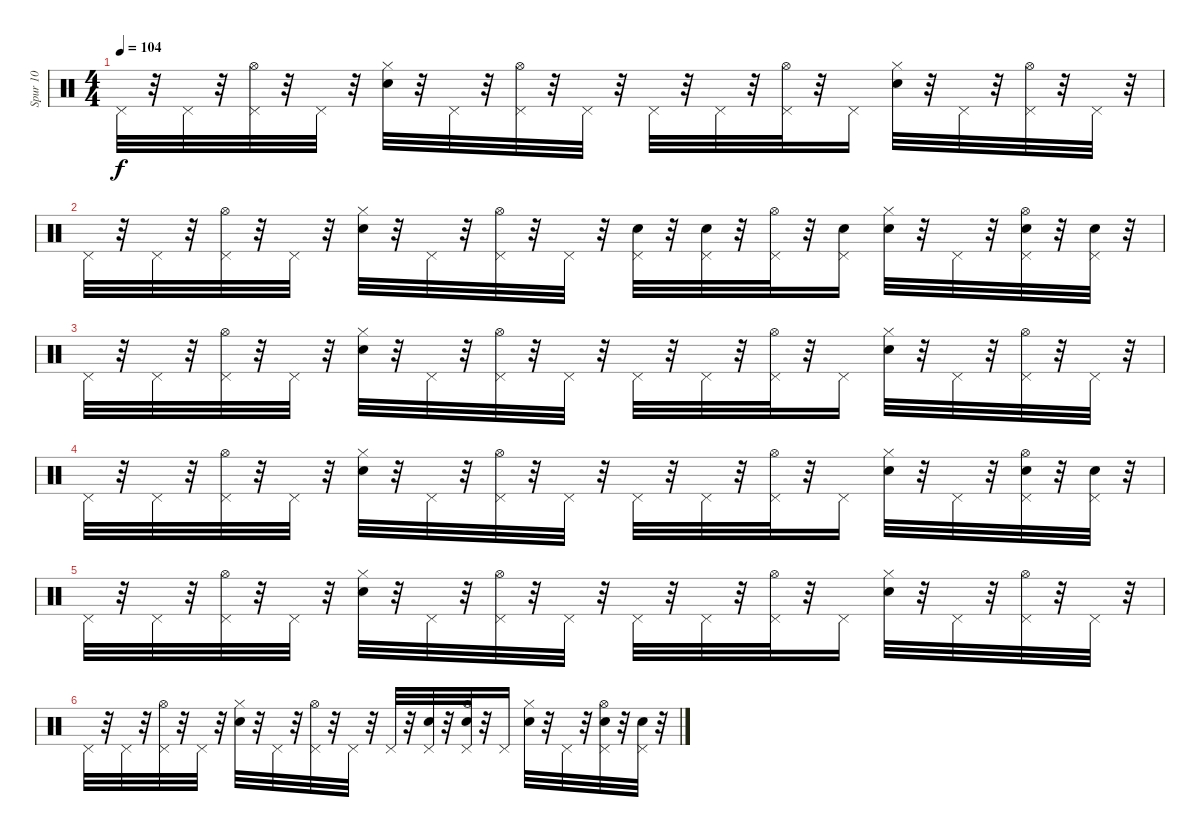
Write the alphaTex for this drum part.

\track ("Spur 10" "Spur 10") {instrument percussion}
\staff {score}
\articulation defaults
\ts (4 4)
\tempo 104
\clef neutral
\ks c "Pedal Hi-Hat (hit)".32{dy f}
r.32 "Pedal Hi-Hat (hit)".32 r.32 ("Pedal Hi-Hat (hit)" "Hi-Hat (open)").32 r.32 "Pedal Hi-Hat (hit)".32 r.32 ("Snare (hit) 2" "Hi-Hat (closed)").32 r.32 "Pedal Hi-Hat (hit)".32 r.32 ("Pedal Hi-Hat (hit)" "Hi-Hat (open)").32 r.32 "Pedal Hi-Hat (hit)".32 r.32 "Pedal Hi-Hat (hit)".32 r.32 "Pedal Hi-Hat (hit)".32 r.32 ("Pedal Hi-Hat (hit)" "Hi-Hat (open)").32 r.32 "Pedal Hi-Hat (hit)".16 ("Snare (hit) 2" "Hi-Hat (closed)").32 r.32 "Pedal Hi-Hat (hit)".32 r.32 ("Pedal Hi-Hat (hit)" "Hi-Hat (open)").32 r.32 "Pedal Hi-Hat (hit)".32 r.32 |
"Pedal Hi-Hat (hit)".32 r.32 "Pedal Hi-Hat (hit)".32 r.32 ("Pedal Hi-Hat (hit)" "Hi-Hat (open)").32 r.32 "Pedal Hi-Hat (hit)".32 r.32 ("Snare (hit) 2" "Hi-Hat (closed)").32 r.32 "Pedal Hi-Hat (hit)".32 r.32 ("Pedal Hi-Hat (hit)" "Hi-Hat (open)").32 r.32 "Pedal Hi-Hat (hit)".32 r.32 ("Snare (hit) 2" "Pedal Hi-Hat (hit)").32 r.32 ("Snare (hit) 2" "Pedal Hi-Hat (hit)").32 r.32 ("Pedal Hi-Hat (hit)" "Hi-Hat (open)").32 r.32 ("Snare (hit) 2" "Pedal Hi-Hat (hit)").16 ("Snare (hit) 2" "Hi-Hat (closed)").32 r.32 "Pedal Hi-Hat (hit)".32 r.32 ("Snare (hit) 2" "Pedal Hi-Hat (hit)" "Hi-Hat (open)").32 r.32 ("Snare (hit) 2" "Pedal Hi-Hat (hit)").32 r.32 |
"Pedal Hi-Hat (hit)".32{volume 12} r.32 "Pedal Hi-Hat (hit)".32{volume 12} r.32 ("Pedal Hi-Hat (hit)" "Hi-Hat (open)").32{volume 12} r.32 "Pedal Hi-Hat (hit)".32{volume 12} r.32 ("Snare (hit) 2" "Hi-Hat (closed)").32{volume 12} r.32 "Pedal Hi-Hat (hit)".32{volume 12} r.32 ("Pedal Hi-Hat (hit)" "Hi-Hat (open)").32{volume 11} r.32 "Pedal Hi-Hat (hit)".32{volume 11} r.32 "Pedal Hi-Hat (hit)".32{volume 11} r.32 "Pedal Hi-Hat (hit)".32{volume 11} r.32 ("Pedal Hi-Hat (hit)" "Hi-Hat (open)").32{volume 11} r.32 "Pedal Hi-Hat (hit)".16{volume 10} ("Snare (hit) 2" "Hi-Hat (closed)").32{volume 10} r.32 "Pedal Hi-Hat (hit)".32{volume 10} r.32 ("Pedal Hi-Hat (hit)" "Hi-Hat (open)").32{volume 10} r.32 "Pedal Hi-Hat (hit)".32{volume 10} r.32 |
"Pedal Hi-Hat (hit)".32{volume 9} r.32 "Pedal Hi-Hat (hit)".32{volume 9} r.32 ("Pedal Hi-Hat (hit)" "Hi-Hat (open)").32{volume 9} r.32 "Pedal Hi-Hat (hit)".32{volume 9} r.32 ("Snare (hit) 2" "Hi-Hat (closed)").32{volume 9} r.32 "Pedal Hi-Hat (hit)".32{volume 8} r.32 ("Pedal Hi-Hat (hit)" "Hi-Hat (open)").32{volume 8} r.32 "Pedal Hi-Hat (hit)".32{volume 8} r.32 "Pedal Hi-Hat (hit)".32{volume 8} r.32 "Pedal Hi-Hat (hit)".32{volume 8} r.32 ("Pedal Hi-Hat (hit)" "Hi-Hat (open)").32{volume 8} r.32 "Pedal Hi-Hat (hit)".16{volume 7} ("Snare (hit) 2" "Hi-Hat (closed)").32{volume 7} r.32 "Pedal Hi-Hat (hit)".32{volume 7} r.32 ("Snare (hit) 2" "Pedal Hi-Hat (hit)" "Hi-Hat (open)").32{volume 7} r.32 ("Snare (hit) 2" "Pedal Hi-Hat (hit)").32{volume 6} r.32 |
"Pedal Hi-Hat (hit)".32{volume 6} r.32 "Pedal Hi-Hat (hit)".32{volume 6} r.32 ("Pedal Hi-Hat (hit)" "Hi-Hat (open)").32{volume 6} r.32 "Pedal Hi-Hat (hit)".32{volume 6} r.32 ("Snare (hit) 2" "Hi-Hat (closed)").32{volume 6} r.32 "Pedal Hi-Hat (hit)".32{volume 5} r.32 ("Pedal Hi-Hat (hit)" "Hi-Hat (open)").32{volume 5} r.32 "Pedal Hi-Hat (hit)".32{volume 5} r.32 "Pedal Hi-Hat (hit)".32{volume 5} r.32 "Pedal Hi-Hat (hit)".32{volume 4} r.32 ("Pedal Hi-Hat (hit)" "Hi-Hat (open)").32{volume 4} r.32 "Pedal Hi-Hat (hit)".16{volume 4} ("Snare (hit) 2" "Hi-Hat (closed)").32{volume 4} r.32 "Pedal Hi-Hat (hit)".32{volume 4} r.32 ("Pedal Hi-Hat (hit)" "Hi-Hat (open)").32{volume 4} r.32 "Pedal Hi-Hat (hit)".32{volume 3} r.32 |
"Pedal Hi-Hat (hit)".32{volume 3} r.32 "Pedal Hi-Hat (hit)".32{volume 3} r.32 ("Pedal Hi-Hat (hit)" "Hi-Hat (open)").32{volume 3} r.32 "Pedal Hi-Hat (hit)".32{volume 3} r.32 ("Snare (hit) 2" "Hi-Hat (closed)").32{volume 2} r.32 "Pedal Hi-Hat (hit)".32{volume 2} r.32 ("Pedal Hi-Hat (hit)" "Hi-Hat (open)").32{volume 2} r.32 "Pedal Hi-Hat (hit)".32{volume 2} r.32 "Pedal Hi-Hat (hit)".32{volume 2} r.32 ("Pedal Hi-Hat (hit)" "Snare (hit) 2").32{volume 1} r.32 ("Pedal Hi-Hat (hit)" "Snare (hit) 2" "Hi-Hat (open)").32{volume 1} r.32 "Pedal Hi-Hat (hit)".16{volume 1} ("Snare (hit) 2" "Hi-Hat (closed)").32{volume 1} r.32 "Pedal Hi-Hat (hit)".32{volume 1} r.32 ("Snare (hit) 2" "Pedal Hi-Hat (hit)" "Hi-Hat (open)").32{volume 0} r.32 ("Snare (hit) 2" "Pedal Hi-Hat (hit)").32{volume 0} r.32
